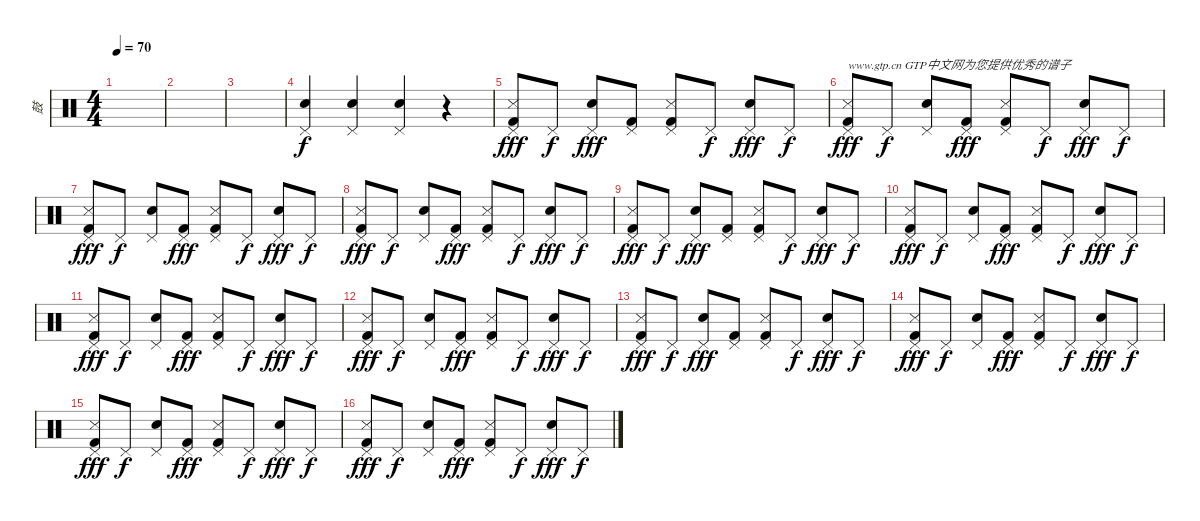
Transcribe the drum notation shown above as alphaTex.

\track ("鼓" "鼓") {instrument percussion}
\staff {score}
\articulation defaults
\ts (4 4)
\tempo 70
\clef neutral
\ks c
|
|
|
("Hand Clap (hit)" "Pedal Hi-Hat (hit)").4 ("Hand Clap (hit)" "Pedal Hi-Hat (hit)").4 ("Hand Clap (hit)" "Pedal Hi-Hat (hit)").4 r.4 |
("Snare (side stick) 3" "Pedal Hi-Hat (hit)" "Kick (hit) 2").8{dy fff} "Pedal Hi-Hat (hit)".8{dy f} ("Hand Clap (hit)" "Pedal Hi-Hat (hit)").8{dy fff} ("Pedal Hi-Hat (hit)" "Kick (hit) 2").8 ("Snare (side stick) 3" "Pedal Hi-Hat (hit)" "Kick (hit) 2").8 "Pedal Hi-Hat (hit)".8{dy f} ("Hand Clap (hit)" "Pedal Hi-Hat (hit)").8{dy fff} "Pedal Hi-Hat (hit)".8{dy f} |
("Snare (side stick) 3" "Pedal Hi-Hat (hit)" "Kick (hit) 2").8{txt "www.gtp.cn GTP中文网为您提供优秀的谱子" dy fff} "Pedal Hi-Hat (hit)".8{dy f} ("Hand Clap (hit)" "Pedal Hi-Hat (hit)").8 ("Pedal Hi-Hat (hit)" "Kick (hit) 2").8{dy fff} ("Snare (side stick) 3" "Pedal Hi-Hat (hit)" "Kick (hit) 2").8 "Pedal Hi-Hat (hit)".8{dy f} ("Hand Clap (hit)" "Pedal Hi-Hat (hit)").8{dy fff} "Pedal Hi-Hat (hit)".8{dy f} |
("Snare (side stick) 3" "Pedal Hi-Hat (hit)" "Kick (hit) 2").8{dy fff} "Pedal Hi-Hat (hit)".8{dy f} ("Hand Clap (hit)" "Pedal Hi-Hat (hit)").8 ("Pedal Hi-Hat (hit)" "Kick (hit) 2").8{dy fff} ("Snare (side stick) 3" "Pedal Hi-Hat (hit)" "Kick (hit) 2").8 "Pedal Hi-Hat (hit)".8{dy f} ("Hand Clap (hit)" "Pedal Hi-Hat (hit)").8{dy fff} "Pedal Hi-Hat (hit)".8{dy f} |
("Snare (side stick) 3" "Pedal Hi-Hat (hit)" "Kick (hit) 2").8{dy fff} "Pedal Hi-Hat (hit)".8{dy f} ("Hand Clap (hit)" "Pedal Hi-Hat (hit)").8 ("Pedal Hi-Hat (hit)" "Kick (hit) 2").8{dy fff} ("Snare (side stick) 3" "Pedal Hi-Hat (hit)" "Kick (hit) 2").8 "Pedal Hi-Hat (hit)".8{dy f} ("Hand Clap (hit)" "Pedal Hi-Hat (hit)").8{dy fff} "Pedal Hi-Hat (hit)".8{dy f} |
("Snare (side stick) 3" "Pedal Hi-Hat (hit)" "Kick (hit) 2").8{dy fff} "Pedal Hi-Hat (hit)".8{dy f} ("Hand Clap (hit)" "Pedal Hi-Hat (hit)").8{dy fff} ("Pedal Hi-Hat (hit)" "Kick (hit) 2").8 ("Snare (side stick) 3" "Pedal Hi-Hat (hit)" "Kick (hit) 2").8 "Pedal Hi-Hat (hit)".8{dy f} ("Hand Clap (hit)" "Pedal Hi-Hat (hit)").8{dy fff} "Pedal Hi-Hat (hit)".8{dy f} |
("Snare (side stick) 3" "Pedal Hi-Hat (hit)" "Kick (hit) 2").8{dy fff} "Pedal Hi-Hat (hit)".8{dy f} ("Hand Clap (hit)" "Pedal Hi-Hat (hit)").8 ("Pedal Hi-Hat (hit)" "Kick (hit) 2").8{dy fff} ("Snare (side stick) 3" "Pedal Hi-Hat (hit)" "Kick (hit) 2").8 "Pedal Hi-Hat (hit)".8{dy f} ("Hand Clap (hit)" "Pedal Hi-Hat (hit)").8{dy fff} "Pedal Hi-Hat (hit)".8{dy f} |
("Snare (side stick) 3" "Pedal Hi-Hat (hit)" "Kick (hit) 2").8{dy fff} "Pedal Hi-Hat (hit)".8{dy f} ("Hand Clap (hit)" "Pedal Hi-Hat (hit)").8 ("Pedal Hi-Hat (hit)" "Kick (hit) 2").8{dy fff} ("Snare (side stick) 3" "Pedal Hi-Hat (hit)" "Kick (hit) 2").8 "Pedal Hi-Hat (hit)".8{dy f} ("Hand Clap (hit)" "Pedal Hi-Hat (hit)").8{dy fff} "Pedal Hi-Hat (hit)".8{dy f} |
("Snare (side stick) 3" "Pedal Hi-Hat (hit)" "Kick (hit) 2").8{dy fff} "Pedal Hi-Hat (hit)".8{dy f} ("Hand Clap (hit)" "Pedal Hi-Hat (hit)").8 ("Pedal Hi-Hat (hit)" "Kick (hit) 2").8{dy fff} ("Snare (side stick) 3" "Pedal Hi-Hat (hit)" "Kick (hit) 2").8 "Pedal Hi-Hat (hit)".8{dy f} ("Hand Clap (hit)" "Pedal Hi-Hat (hit)").8{dy fff} "Pedal Hi-Hat (hit)".8{dy f} |
("Snare (side stick) 3" "Pedal Hi-Hat (hit)" "Kick (hit) 2").8{dy fff} "Pedal Hi-Hat (hit)".8{dy f} ("Hand Clap (hit)" "Pedal Hi-Hat (hit)").8{dy fff} ("Pedal Hi-Hat (hit)" "Kick (hit) 2").8 ("Snare (side stick) 3" "Pedal Hi-Hat (hit)" "Kick (hit) 2").8 "Pedal Hi-Hat (hit)".8{dy f} ("Hand Clap (hit)" "Pedal Hi-Hat (hit)").8{dy fff} "Pedal Hi-Hat (hit)".8{dy f} |
("Snare (side stick) 3" "Pedal Hi-Hat (hit)" "Kick (hit) 2").8{dy fff} "Pedal Hi-Hat (hit)".8{dy f} ("Hand Clap (hit)" "Pedal Hi-Hat (hit)").8 ("Pedal Hi-Hat (hit)" "Kick (hit) 2").8{dy fff} ("Snare (side stick) 3" "Pedal Hi-Hat (hit)" "Kick (hit) 2").8 "Pedal Hi-Hat (hit)".8{dy f} ("Hand Clap (hit)" "Pedal Hi-Hat (hit)").8{dy fff} "Pedal Hi-Hat (hit)".8{dy f} |
("Snare (side stick) 3" "Pedal Hi-Hat (hit)" "Kick (hit) 2").8{dy fff} "Pedal Hi-Hat (hit)".8{dy f} ("Hand Clap (hit)" "Pedal Hi-Hat (hit)").8 ("Pedal Hi-Hat (hit)" "Kick (hit) 2").8{dy fff} ("Snare (side stick) 3" "Pedal Hi-Hat (hit)" "Kick (hit) 2").8 "Pedal Hi-Hat (hit)".8{dy f} ("Hand Clap (hit)" "Pedal Hi-Hat (hit)").8{dy fff} "Pedal Hi-Hat (hit)".8{dy f} |
("Snare (side stick) 3" "Pedal Hi-Hat (hit)" "Kick (hit) 2").8{dy fff} "Pedal Hi-Hat (hit)".8{dy f} ("Hand Clap (hit)" "Pedal Hi-Hat (hit)").8 ("Pedal Hi-Hat (hit)" "Kick (hit) 2").8{dy fff} ("Snare (side stick) 3" "Pedal Hi-Hat (hit)" "Kick (hit) 2").8 "Pedal Hi-Hat (hit)".8{dy f} ("Hand Clap (hit)" "Pedal Hi-Hat (hit)").8{dy fff} "Pedal Hi-Hat (hit)".8{dy f}
